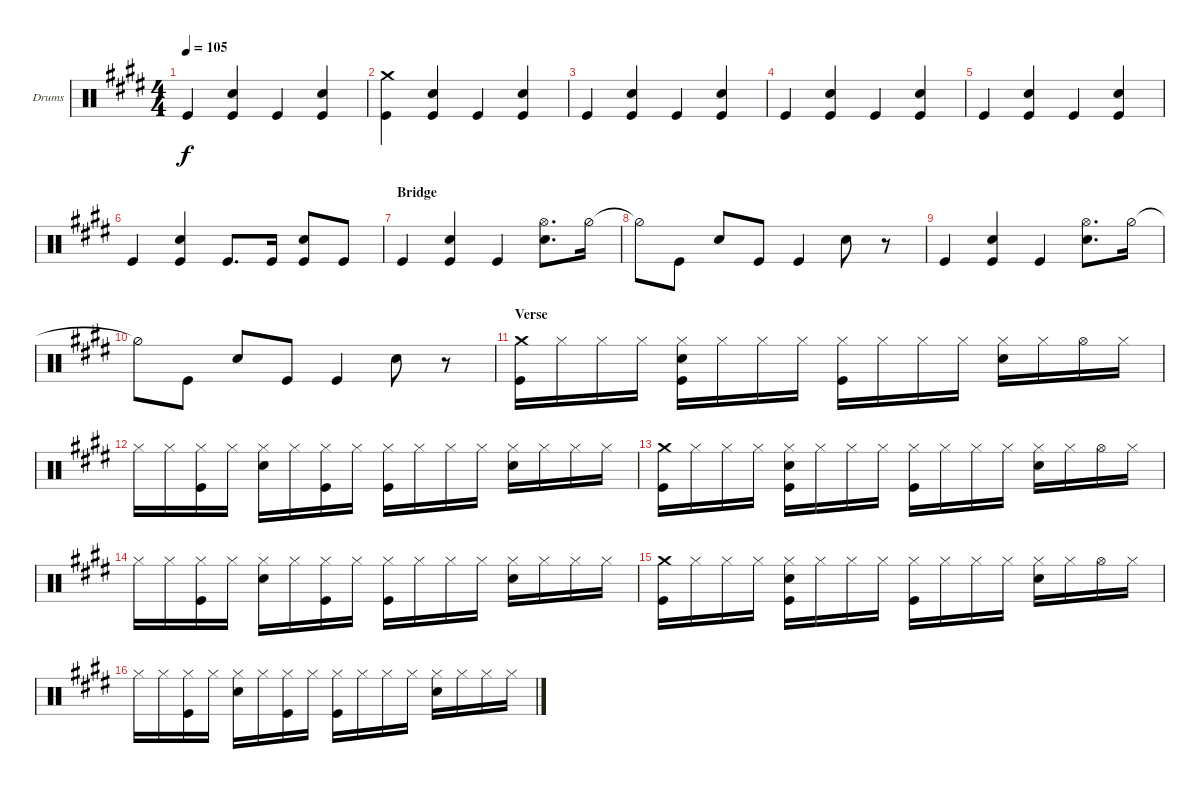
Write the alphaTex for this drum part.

\defaultSystemsLayout 4
\bracketExtendMode groupsimilarinstruments
\firstSystemTrackNameOrientation horizontal
\otherSystemsTrackNameOrientation horizontal
\track ("Drums" "Drums") {instrument percussion}
\staff {score}
\articulation defaults
\ts (4 4)
\tempo 105
\clef neutral
\ks e "Kick (hit)".4{dy f}
("Kick (hit)" "Snare (hit) 2").4 "Kick (hit)".4 ("Kick (hit)" "Snare (hit) 2").4 |
("Kick (hit)" "Crash medium (hit)").4 ("Kick (hit)" "Snare (hit) 2").4 "Kick (hit)".4 ("Kick (hit)" "Snare (hit) 2").4 |
"Kick (hit)".4 ("Kick (hit)" "Snare (hit) 2").4 "Kick (hit)".4 ("Kick (hit)" "Snare (hit) 2").4 |
"Kick (hit)".4 ("Kick (hit)" "Snare (hit) 2").4 "Kick (hit)".4 ("Kick (hit)" "Snare (hit) 2").4 |
"Kick (hit)".4 ("Kick (hit)" "Snare (hit) 2").4 "Kick (hit)".4 ("Kick (hit)" "Snare (hit) 2").4 |
"Kick (hit)".4 ("Kick (hit)" "Snare (hit) 2").4 "Kick (hit)".8{d} "Kick (hit)".16 ("Snare (hit) 2" "Kick (hit)").8 "Kick (hit)".8 |
\section ("" "Bridge")
"Kick (hit)".4 ("Snare (hit) 2" "Kick (hit)").4 "Kick (hit)".4 ("Snare (hit) 2" "Hi-Hat (open)").8{d} "Hi-Hat (half)".16 |
"Hi-Hat (half)"{t}.8 "Kick (hit)".8 "Snare (hit) 2".8 "Kick (hit)".8 "Kick (hit)".4 "Snare (hit) 2".8 r.8 |
"Kick (hit)".4 ("Snare (hit) 2" "Kick (hit)").4 "Kick (hit)".4 ("Snare (hit) 2" "Hi-Hat (open)").8{d} "Hi-Hat (half)".16 |
"Hi-Hat (half)"{t}.8 "Kick (hit)".8 "Snare (hit) 2".8 "Kick (hit)".8 "Kick (hit)".4 "Snare (hit) 2".8 r.8 |
\section ("" "Verse")
("Kick (hit)" "Crash medium (hit)").16 "Hi-Hat (closed)".16 "Hi-Hat (closed)".16 "Hi-Hat (closed)".16 ("Snare (hit) 2" "Kick (hit)" "Hi-Hat (closed)").16 "Hi-Hat (closed)".16 "Hi-Hat (closed)".16 "Hi-Hat (closed)".16 ("Kick (hit)" "Hi-Hat (closed)").16 "Hi-Hat (closed)".16 "Hi-Hat (closed)".16 "Hi-Hat (closed)".16 ("Snare (hit) 2" "Hi-Hat (closed)").16 "Hi-Hat (closed)".16 "Hi-Hat (open)".16 "Hi-Hat (closed)".16 |
"Hi-Hat (closed)".16 "Hi-Hat (closed)".16 ("Kick (hit)" "Hi-Hat (closed)").16 "Hi-Hat (closed)".16 ("Snare (hit) 2" "Hi-Hat (closed)").16 "Hi-Hat (closed)".16 ("Kick (hit)" "Hi-Hat (closed)").16 "Hi-Hat (closed)".16 ("Kick (hit)" "Hi-Hat (closed)").16 "Hi-Hat (closed)".16 "Hi-Hat (closed)".16 "Hi-Hat (closed)".16 ("Snare (hit) 2" "Hi-Hat (closed)").16 "Hi-Hat (closed)".16 "Hi-Hat (closed)".16 "Hi-Hat (closed)".16 |
("Kick (hit)" "Crash medium (hit)").16 "Hi-Hat (closed)".16 "Hi-Hat (closed)".16 "Hi-Hat (closed)".16 ("Snare (hit) 2" "Kick (hit)" "Hi-Hat (closed)").16 "Hi-Hat (closed)".16 "Hi-Hat (closed)".16 "Hi-Hat (closed)".16 ("Kick (hit)" "Hi-Hat (closed)").16 "Hi-Hat (closed)".16 "Hi-Hat (closed)".16 "Hi-Hat (closed)".16 ("Snare (hit) 2" "Hi-Hat (closed)").16 "Hi-Hat (closed)".16 "Hi-Hat (open)".16 "Hi-Hat (closed)".16 |
"Hi-Hat (closed)".16 "Hi-Hat (closed)".16 ("Kick (hit)" "Hi-Hat (closed)").16 "Hi-Hat (closed)".16 ("Snare (hit) 2" "Hi-Hat (closed)").16 "Hi-Hat (closed)".16 ("Kick (hit)" "Hi-Hat (closed)").16 "Hi-Hat (closed)".16 ("Kick (hit)" "Hi-Hat (closed)").16 "Hi-Hat (closed)".16 "Hi-Hat (closed)".16 "Hi-Hat (closed)".16 ("Snare (hit) 2" "Hi-Hat (closed)").16 "Hi-Hat (closed)".16 "Hi-Hat (closed)".16 "Hi-Hat (closed)".16 |
("Kick (hit)" "Crash medium (hit)").16 "Hi-Hat (closed)".16 "Hi-Hat (closed)".16 "Hi-Hat (closed)".16 ("Snare (hit) 2" "Kick (hit)" "Hi-Hat (closed)").16 "Hi-Hat (closed)".16 "Hi-Hat (closed)".16 "Hi-Hat (closed)".16 ("Kick (hit)" "Hi-Hat (closed)").16 "Hi-Hat (closed)".16 "Hi-Hat (closed)".16 "Hi-Hat (closed)".16 ("Snare (hit) 2" "Hi-Hat (closed)").16 "Hi-Hat (closed)".16 "Hi-Hat (open)".16 "Hi-Hat (closed)".16 |
"Hi-Hat (closed)".16 "Hi-Hat (closed)".16 ("Kick (hit)" "Hi-Hat (closed)").16 "Hi-Hat (closed)".16 ("Snare (hit) 2" "Hi-Hat (closed)").16 "Hi-Hat (closed)".16 ("Kick (hit)" "Hi-Hat (closed)").16 "Hi-Hat (closed)".16 ("Kick (hit)" "Hi-Hat (closed)").16 "Hi-Hat (closed)".16 "Hi-Hat (closed)".16 "Hi-Hat (closed)".16 ("Snare (hit) 2" "Hi-Hat (closed)").16 "Hi-Hat (closed)".16 "Hi-Hat (closed)".16 "Hi-Hat (closed)".16
